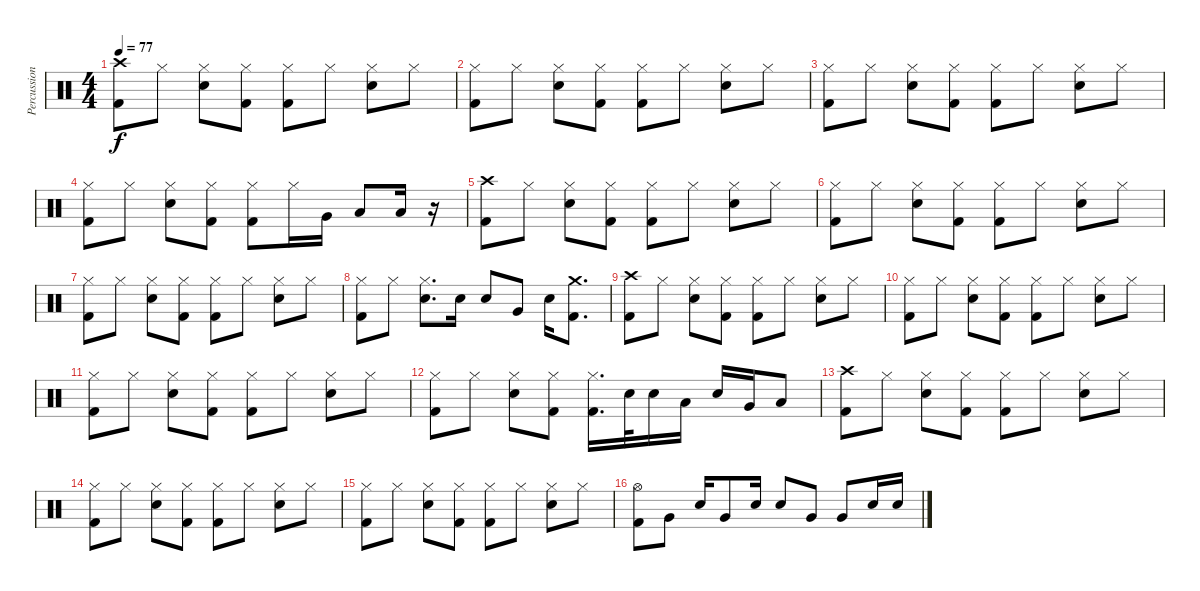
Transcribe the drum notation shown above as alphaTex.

\track ("Percussion" "Percussion") {instrument percussion}
\staff {score}
\articulation defaults
\ts (4 4)
\tempo 77
\clef neutral
\ks c
("Crash high (hit)" "Kick (hit) 2").8{dy f} "Hi-Hat (closed)".8 ("Hi-Hat (closed)" "Electric Snare (hit)").8 ("Hi-Hat (closed)" "Kick (hit) 2").8 ("Hi-Hat (closed)" "Kick (hit) 2").8 "Hi-Hat (closed)".8 ("Hi-Hat (closed)" "Electric Snare (hit)").8 "Hi-Hat (closed)".8 |
("Hi-Hat (closed)" "Kick (hit) 2").8 "Hi-Hat (closed)".8 ("Hi-Hat (closed)" "Electric Snare (hit)").8 ("Hi-Hat (closed)" "Kick (hit) 2").8 ("Hi-Hat (closed)" "Kick (hit) 2").8 "Hi-Hat (closed)".8 ("Hi-Hat (closed)" "Electric Snare (hit)").8 "Hi-Hat (closed)".8 |
("Hi-Hat (closed)" "Kick (hit) 2").8 "Hi-Hat (closed)".8 ("Hi-Hat (closed)" "Electric Snare (hit)").8 ("Hi-Hat (closed)" "Kick (hit) 2").8 ("Hi-Hat (closed)" "Kick (hit) 2").8 "Hi-Hat (closed)".8 ("Hi-Hat (closed)" "Electric Snare (hit)").8 "Hi-Hat (closed)".8 |
("Hi-Hat (closed)" "Kick (hit) 2").8 "Hi-Hat (closed)".8 ("Hi-Hat (closed)" "Electric Snare (hit)").8 ("Hi-Hat (closed)" "Kick (hit) 2").8 ("Hi-Hat (closed)" "Kick (hit) 2").8 "Hi-Hat (closed)".16 "Very Low Tom (hit)".16 "Low Tom (hit)".8 "Low Floor Tom (hit)".16 r.16 |
("Crash high (hit)" "Kick (hit) 2").8 "Hi-Hat (closed)".8 ("Hi-Hat (closed)" "Electric Snare (hit)").8 ("Hi-Hat (closed)" "Kick (hit) 2").8 ("Hi-Hat (closed)" "Kick (hit) 2").8 "Hi-Hat (closed)".8 ("Hi-Hat (closed)" "Electric Snare (hit)").8 "Hi-Hat (closed)".8 |
("Hi-Hat (closed)" "Kick (hit) 2").8 "Hi-Hat (closed)".8 ("Hi-Hat (closed)" "Electric Snare (hit)").8 ("Hi-Hat (closed)" "Kick (hit) 2").8 ("Hi-Hat (closed)" "Kick (hit) 2").8 "Hi-Hat (closed)".8 ("Hi-Hat (closed)" "Electric Snare (hit)").8 "Hi-Hat (closed)".8 |
("Hi-Hat (closed)" "Kick (hit) 2").8 "Hi-Hat (closed)".8 ("Hi-Hat (closed)" "Electric Snare (hit)").8 ("Hi-Hat (closed)" "Kick (hit) 2").8 ("Hi-Hat (closed)" "Kick (hit) 2").8 "Hi-Hat (closed)".8 ("Hi-Hat (closed)" "Electric Snare (hit)").8 "Hi-Hat (closed)".8 |
("Hi-Hat (closed)" "Kick (hit) 2").8 "Hi-Hat (closed)".8 ("Hi-Hat (closed)" "Electric Snare (hit)").8{d} "Electric Snare (hit)".16 "Electric Snare (hit)".8 "Very Low Tom (hit)".8 "Electric Snare (hit)".16 ("Crash medium (hit)" "Kick (hit) 2").8{d} |
("Crash high (hit)" "Kick (hit) 2").8 "Hi-Hat (closed)".8 ("Hi-Hat (closed)" "Electric Snare (hit)").8 ("Hi-Hat (closed)" "Kick (hit) 2").8 ("Hi-Hat (closed)" "Kick (hit) 2").8 "Hi-Hat (closed)".8 ("Hi-Hat (closed)" "Electric Snare (hit)").8 "Hi-Hat (closed)".8 |
("Hi-Hat (closed)" "Kick (hit) 2").8 "Hi-Hat (closed)".8 ("Hi-Hat (closed)" "Electric Snare (hit)").8 ("Hi-Hat (closed)" "Kick (hit) 2").8 ("Hi-Hat (closed)" "Kick (hit) 2").8 "Hi-Hat (closed)".8 ("Hi-Hat (closed)" "Electric Snare (hit)").8 "Hi-Hat (closed)".8 |
("Hi-Hat (closed)" "Kick (hit) 2").8 "Hi-Hat (closed)".8 ("Hi-Hat (closed)" "Electric Snare (hit)").8 ("Hi-Hat (closed)" "Kick (hit) 2").8 ("Hi-Hat (closed)" "Kick (hit) 2").8 "Hi-Hat (closed)".8 ("Hi-Hat (closed)" "Electric Snare (hit)").8 "Hi-Hat (closed)".8 |
("Hi-Hat (closed)" "Kick (hit) 2").8 "Hi-Hat (closed)".8 ("Hi-Hat (closed)" "Electric Snare (hit)").8 ("Hi-Hat (closed)" "Kick (hit) 2").8 ("Hi-Hat (closed)" "Kick (hit) 2").16{d} "Electric Snare (hit)".32 "Electric Snare (hit)".16 "Low Tom (hit)".16 "Electric Snare (hit)".16 "Very Low Tom (hit)".16 "Low Floor Tom (hit)".8 |
("Crash high (hit)" "Kick (hit) 2").8 "Hi-Hat (closed)".8 ("Hi-Hat (closed)" "Electric Snare (hit)").8 ("Hi-Hat (closed)" "Kick (hit) 2").8 ("Hi-Hat (closed)" "Kick (hit) 2").8 "Hi-Hat (closed)".8 ("Hi-Hat (closed)" "Electric Snare (hit)").8 "Hi-Hat (closed)".8 |
("Hi-Hat (closed)" "Kick (hit) 2").8 "Hi-Hat (closed)".8 ("Hi-Hat (closed)" "Electric Snare (hit)").8 ("Hi-Hat (closed)" "Kick (hit) 2").8 ("Hi-Hat (closed)" "Kick (hit) 2").8 "Hi-Hat (closed)".8 ("Hi-Hat (closed)" "Electric Snare (hit)").8 "Hi-Hat (closed)".8 |
("Hi-Hat (closed)" "Kick (hit) 2").8 "Hi-Hat (closed)".8 ("Hi-Hat (closed)" "Electric Snare (hit)").8 ("Hi-Hat (closed)" "Kick (hit) 2").8 ("Hi-Hat (closed)" "Kick (hit) 2").8 "Hi-Hat (closed)".8 ("Hi-Hat (closed)" "Electric Snare (hit)").8 "Hi-Hat (closed)".8 |
("Hi-Hat (open)" "Kick (hit) 2").8 "Very Low Tom (hit)".8 "Electric Snare (hit)".16 "Very Low Tom (hit)".8 "Electric Snare (hit)".16 "Electric Snare (hit)".8 "Very Low Tom (hit)".8 "Very Low Tom (hit)".8 "Electric Snare (hit)".16 "Electric Snare (hit)".16
